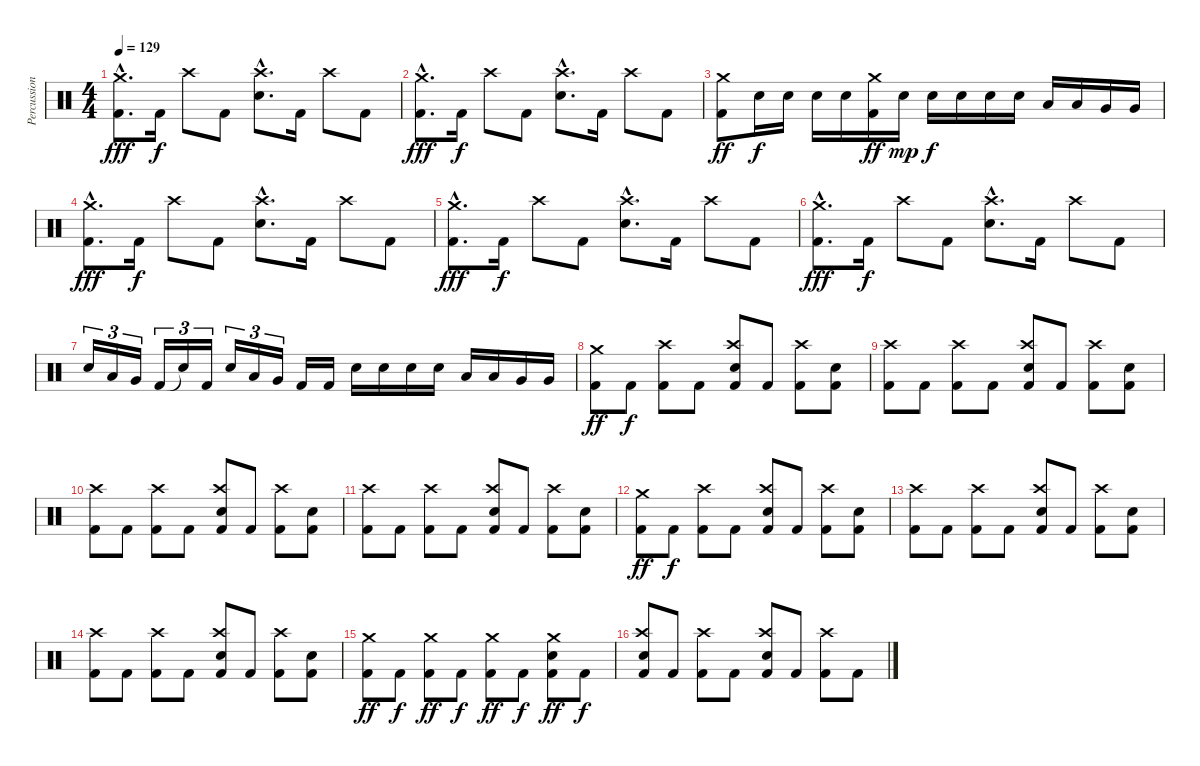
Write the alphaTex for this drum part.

\track ("Percussions" "Percussion") {instrument percussion}
\staff {score}
\articulation defaults
\ts (4 4)
\tempo 129
\clef neutral
\ks c
("Crash medium (hit)"{hac} "Kick (hit) 2"{hac}).8{d dy fff} "Kick (hit) 2".16{dy f} "Crash high (hit)".8 "Kick (hit) 2".8 ("Crash high (hit)"{hac} "Snare (hit) 2"{hac}).8{d} "Kick (hit) 2".16 "Crash high (hit)".8 "Kick (hit) 2".8 |
("Crash medium (hit)"{hac} "Kick (hit) 2"{hac}).8{d dy fff} "Kick (hit) 2".16{dy f} "Crash high (hit)".8 "Kick (hit) 2".8 ("Crash high (hit)"{hac} "Snare (hit) 2"{hac}).8{d} "Kick (hit) 2".16 "Crash high (hit)".8 "Kick (hit) 2".8 |
("Crash medium (hit)" "Kick (hit) 2").8{dy ff} "Snare (hit) 2".16{dy f} "Snare (hit) 2".16 "Snare (hit) 2".16 "Snare (hit) 2".16 ("Crash medium (hit)" "Kick (hit) 2").16{dy ff} "Snare (hit) 2".16{dy mp} "Snare (hit) 2".16{dy f} "Snare (hit) 2".16 "Snare (hit) 2".16 "Snare (hit) 2".16 "Low Tom (hit)".16 "Low Tom (hit)".16 "Very Low Tom (hit)".16 "Very Low Tom (hit)".16 |
("Crash medium (hit)"{hac} "Kick (hit) 2"{hac}).8{d dy fff} "Kick (hit) 2".16{dy f} "Crash high (hit)".8 "Kick (hit) 2".8 ("Crash high (hit)"{hac} "Snare (hit) 2"{hac}).8{d} "Kick (hit) 2".16 "Crash high (hit)".8 "Kick (hit) 2".8 |
("Crash medium (hit)"{hac} "Kick (hit) 2"{hac}).8{d dy fff} "Kick (hit) 2".16{dy f} "Crash high (hit)".8 "Kick (hit) 2".8 ("Crash high (hit)"{hac} "Snare (hit) 2"{hac}).8{d} "Kick (hit) 2".16 "Crash high (hit)".8 "Kick (hit) 2".8 |
("Crash medium (hit)"{hac} "Kick (hit) 2"{hac}).8{d dy fff} "Kick (hit) 2".16{dy f} "Crash high (hit)".8 "Kick (hit) 2".8 ("Crash high (hit)"{hac} "Snare (hit) 2"{hac}).8{d} "Kick (hit) 2".16 "Crash high (hit)".8 "Kick (hit) 2".8 |
"Snare (hit) 2".16{tu (3 2)} "Low Tom (hit)".16{tu (3 2)} "Very Low Tom (hit)".16{tu (3 2)} "Kick (hit) 2".16{tu (3 2)} "Snare (hit)"{t}.16{tu (3 2)} "Kick (hit) 2".16{tu (3 2)} "Snare (hit) 2".16{tu (3 2)} "Low Tom (hit)".16{tu (3 2)} "Very Low Tom (hit)".16{tu (3 2)} "Kick (hit) 2".16 "Kick (hit) 2".16 "Snare (hit) 2".16 "Snare (hit) 2".16 "Snare (hit) 2".16 "Snare (hit) 2".16 "Low Tom (hit)".16 "Low Tom (hit)".16 "Very Low Tom (hit)".16 "Very Low Tom (hit)".16 |
("Crash medium (hit)" "Kick (hit) 2").8{dy ff} "Kick (hit) 2".8{dy f} ("Crash high (hit)" "Kick (hit) 2").8 "Kick (hit) 2".8 ("Crash high (hit)" "Snare (hit) 2" "Kick (hit) 2").8 "Kick (hit) 2".8 ("Crash high (hit)" "Kick (hit) 2").8 ("Snare (hit) 2" "Kick (hit) 2").8 |
("Crash high (hit)" "Kick (hit) 2").8 "Kick (hit) 2".8 ("Crash high (hit)" "Kick (hit) 2").8 "Kick (hit) 2".8 ("Crash high (hit)" "Snare (hit) 2" "Kick (hit) 2").8 "Kick (hit) 2".8 ("Crash high (hit)" "Kick (hit) 2").8 ("Snare (hit) 2" "Kick (hit) 2").8 |
("Crash high (hit)" "Kick (hit) 2").8 "Kick (hit) 2".8 ("Crash high (hit)" "Kick (hit) 2").8 "Kick (hit) 2".8 ("Crash high (hit)" "Snare (hit) 2" "Kick (hit) 2").8 "Kick (hit) 2".8 ("Crash high (hit)" "Kick (hit) 2").8 ("Snare (hit) 2" "Kick (hit) 2").8 |
("Crash high (hit)" "Kick (hit) 2").8 "Kick (hit) 2".8 ("Crash high (hit)" "Kick (hit) 2").8 "Kick (hit) 2".8 ("Crash high (hit)" "Snare (hit) 2" "Kick (hit) 2").8 "Kick (hit) 2".8 ("Crash high (hit)" "Kick (hit) 2").8 ("Snare (hit) 2" "Kick (hit) 2").8 |
("Crash medium (hit)" "Kick (hit) 2").8{dy ff} "Kick (hit) 2".8{dy f} ("Crash high (hit)" "Kick (hit) 2").8 "Kick (hit) 2".8 ("Crash high (hit)" "Snare (hit) 2" "Kick (hit) 2").8 "Kick (hit) 2".8 ("Crash high (hit)" "Kick (hit) 2").8 ("Snare (hit) 2" "Kick (hit) 2").8 |
("Crash high (hit)" "Kick (hit) 2").8 "Kick (hit) 2".8 ("Crash high (hit)" "Kick (hit) 2").8 "Kick (hit) 2".8 ("Crash high (hit)" "Snare (hit) 2" "Kick (hit) 2").8 "Kick (hit) 2".8 ("Crash high (hit)" "Kick (hit) 2").8 ("Snare (hit) 2" "Kick (hit) 2").8 |
("Crash high (hit)" "Kick (hit) 2").8 "Kick (hit) 2".8 ("Crash high (hit)" "Kick (hit) 2").8 "Kick (hit) 2".8 ("Crash high (hit)" "Snare (hit) 2" "Kick (hit) 2").8 "Kick (hit) 2".8 ("Crash high (hit)" "Kick (hit) 2").8 ("Snare (hit) 2" "Kick (hit) 2").8 |
("Crash medium (hit)" "Kick (hit) 2").8{dy ff} "Kick (hit) 2".8{dy f} ("Crash medium (hit)" "Kick (hit) 2").8{dy ff} "Kick (hit) 2".8{dy f} ("Crash medium (hit)" "Kick (hit) 2").8{dy ff} "Kick (hit) 2".8{dy f} ("Crash medium (hit)" "Snare (hit) 2" "Kick (hit) 2").8{dy ff} "Kick (hit) 2".8{dy f} |
("Crash high (hit)" "Snare (hit) 2" "Kick (hit) 2").8 "Kick (hit) 2".8 ("Crash high (hit)" "Kick (hit) 2").8 "Kick (hit) 2".8 ("Crash high (hit)" "Snare (hit) 2" "Kick (hit) 2").8 "Kick (hit) 2".8 ("Crash high (hit)" "Kick (hit) 2").8 "Kick (hit) 2".8
